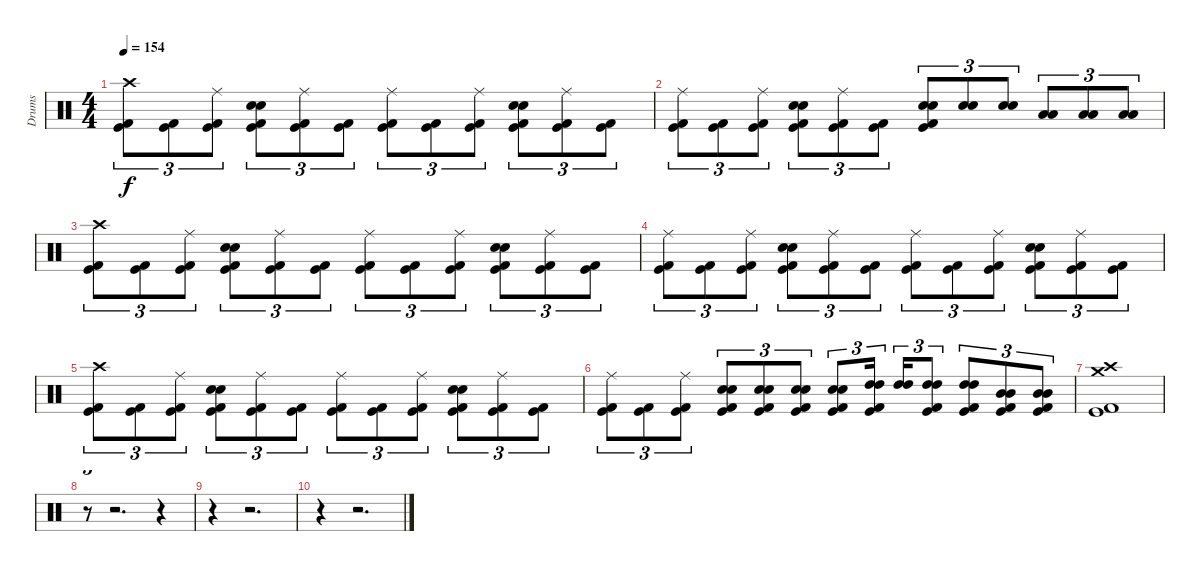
\track ("Drums" "Drums") {instrument percussion}
\staff {score}
\articulation defaults
\ts (4 4)
\tempo 154
\clef neutral
\ks c
("Crash high (hit)" "Kick (hit) 2" "Kick (hit)").8{tu (3 2) dy f} ("Kick (hit) 2" "Kick (hit)").8{tu (3 2)} ("Ride (middle)" "Kick (hit) 2" "Kick (hit)").8{tu (3 2)} ("Electric Snare (hit)" "Electric Snare (hit)" "Kick (hit) 2" "Kick (hit)").8{tu (3 2)} ("Ride (middle)" "Kick (hit) 2" "Kick (hit)").8{tu (3 2)} ("Kick (hit) 2" "Kick (hit)").8{tu (3 2)} ("Ride (middle)" "Kick (hit) 2" "Kick (hit)").8{tu (3 2)} ("Kick (hit) 2" "Kick (hit)").8{tu (3 2)} ("Ride (middle)" "Kick (hit) 2" "Kick (hit)").8{tu (3 2)} ("Electric Snare (hit)" "Electric Snare (hit)" "Kick (hit) 2" "Kick (hit)").8{tu (3 2)} ("Ride (middle)" "Kick (hit) 2" "Kick (hit)").8{tu (3 2)} ("Kick (hit) 2" "Kick (hit)").8{tu (3 2)} |
("Ride (middle)" "Kick (hit) 2" "Kick (hit)").8{tu (3 2)} ("Kick (hit) 2" "Kick (hit)").8{tu (3 2)} ("Ride (middle)" "Kick (hit) 2" "Kick (hit)").8{tu (3 2)} ("Electric Snare (hit)" "Electric Snare (hit)" "Kick (hit) 2" "Kick (hit)").8{tu (3 2)} ("Ride (middle)" "Kick (hit) 2" "Kick (hit)").8{tu (3 2)} ("Kick (hit) 2" "Kick (hit)").8{tu (3 2)} ("Electric Snare (hit)" "Electric Snare (hit)" "Kick (hit) 2" "Kick (hit)").8{tu (3 2)} ("Electric Snare (hit)" "Electric Snare (hit)").8{tu (3 2)} ("Electric Snare (hit)" "Electric Snare (hit)").8{tu (3 2)} ("Low Tom (hit)" "Low Tom (hit)").8{tu (3 2)} ("Low Tom (hit)" "Low Tom (hit)").8{tu (3 2)} ("Low Tom (hit)" "Low Tom (hit)").8{tu (3 2)} |
("Crash high (hit)" "Kick (hit) 2" "Kick (hit)").8{tu (3 2)} ("Kick (hit) 2" "Kick (hit)").8{tu (3 2)} ("Ride (middle)" "Kick (hit) 2" "Kick (hit)").8{tu (3 2)} ("Electric Snare (hit)" "Electric Snare (hit)" "Kick (hit) 2" "Kick (hit)").8{tu (3 2)} ("Ride (middle)" "Kick (hit) 2" "Kick (hit)").8{tu (3 2)} ("Kick (hit) 2" "Kick (hit)").8{tu (3 2)} ("Ride (middle)" "Kick (hit) 2" "Kick (hit)").8{tu (3 2)} ("Kick (hit) 2" "Kick (hit)").8{tu (3 2)} ("Ride (middle)" "Kick (hit) 2" "Kick (hit)").8{tu (3 2)} ("Electric Snare (hit)" "Electric Snare (hit)" "Kick (hit) 2" "Kick (hit)").8{tu (3 2)} ("Ride (middle)" "Kick (hit) 2" "Kick (hit)").8{tu (3 2)} ("Kick (hit) 2" "Kick (hit)").8{tu (3 2)} |
("Ride (middle)" "Kick (hit) 2" "Kick (hit)").8{tu (3 2)} ("Kick (hit) 2" "Kick (hit)").8{tu (3 2)} ("Ride (middle)" "Kick (hit) 2" "Kick (hit)").8{tu (3 2)} ("Electric Snare (hit)" "Electric Snare (hit)" "Kick (hit) 2" "Kick (hit)").8{tu (3 2)} ("Ride (middle)" "Kick (hit) 2" "Kick (hit)").8{tu (3 2)} ("Kick (hit) 2" "Kick (hit)").8{tu (3 2)} ("Ride (middle)" "Kick (hit) 2" "Kick (hit)").8{tu (3 2)} ("Kick (hit) 2" "Kick (hit)").8{tu (3 2)} ("Ride (middle)" "Kick (hit) 2" "Kick (hit)").8{tu (3 2)} ("Electric Snare (hit)" "Electric Snare (hit)" "Kick (hit) 2" "Kick (hit)").8{tu (3 2)} ("Ride (middle)" "Kick (hit) 2" "Kick (hit)").8{tu (3 2)} ("Kick (hit) 2" "Kick (hit)").8{tu (3 2)} |
("Crash high (hit)" "Kick (hit) 2" "Kick (hit)").8{tu (3 2)} ("Kick (hit) 2" "Kick (hit)").8{tu (3 2)} ("Ride (middle)" "Kick (hit) 2" "Kick (hit)").8{tu (3 2)} ("Electric Snare (hit)" "Electric Snare (hit)" "Kick (hit) 2" "Kick (hit)").8{tu (3 2)} ("Ride (middle)" "Kick (hit) 2" "Kick (hit)").8{tu (3 2)} ("Kick (hit) 2" "Kick (hit)").8{tu (3 2)} ("Ride (middle)" "Kick (hit) 2" "Kick (hit)").8{tu (3 2)} ("Kick (hit) 2" "Kick (hit)").8{tu (3 2)} ("Ride (middle)" "Kick (hit) 2" "Kick (hit)").8{tu (3 2)} ("Electric Snare (hit)" "Electric Snare (hit)" "Kick (hit) 2" "Kick (hit)").8{tu (3 2)} ("Ride (middle)" "Kick (hit) 2" "Kick (hit)").8{tu (3 2)} ("Kick (hit) 2" "Kick (hit)").8{tu (3 2)} |
("Ride (middle)" "Kick (hit) 2" "Kick (hit)").8{tu (3 2)} ("Kick (hit) 2" "Kick (hit)").8{tu (3 2)} ("Ride (middle)" "Kick (hit) 2" "Kick (hit)").8{tu (3 2)} ("Electric Snare (hit)" "Electric Snare (hit)" "Kick (hit) 2" "Kick (hit)").8{tu (3 2)} ("Electric Snare (hit)" "Electric Snare (hit)" "Kick (hit) 2" "Kick (hit)").8{tu (3 2)} ("Electric Snare (hit)" "Electric Snare (hit)" "Kick (hit) 2" "Kick (hit)").8{tu (3 2)} ("Electric Snare (hit)" "Electric Snare (hit)" "Kick (hit) 2" "Kick (hit)").8{tu (3 2)} ("High Tom (hit)" "High Tom (hit)" "Kick (hit) 2" "Kick (hit)").16{tu (3 2) beam splitsecondary} ("High Tom (hit)" "High Tom (hit)").16{tu (3 2)} ("High Tom (hit)" "High Tom (hit)" "Kick (hit) 2" "Kick (hit)").8{tu (3 2)} ("High Tom (hit)" "High Tom (hit)" "Kick (hit) 2" "Kick (hit)").8{tu (3 2)} ("Mid Tom (hit)" "Mid Tom (hit)" "Kick (hit) 2" "Kick (hit)").8{tu (3 2)} ("Mid Tom (hit)" "Mid Tom (hit)" "Kick (hit) 2" "Kick (hit)").8{tu (3 2)} |
("Crash high (hit)" "Crash medium (hit)" "Kick (hit) 2" "Kick (hit)").1 |
r.8{tu (3 2)} r.2{d} r.4{tu (3 2)} |
r.4 r.2{d} |
r.4 r.2{d}
